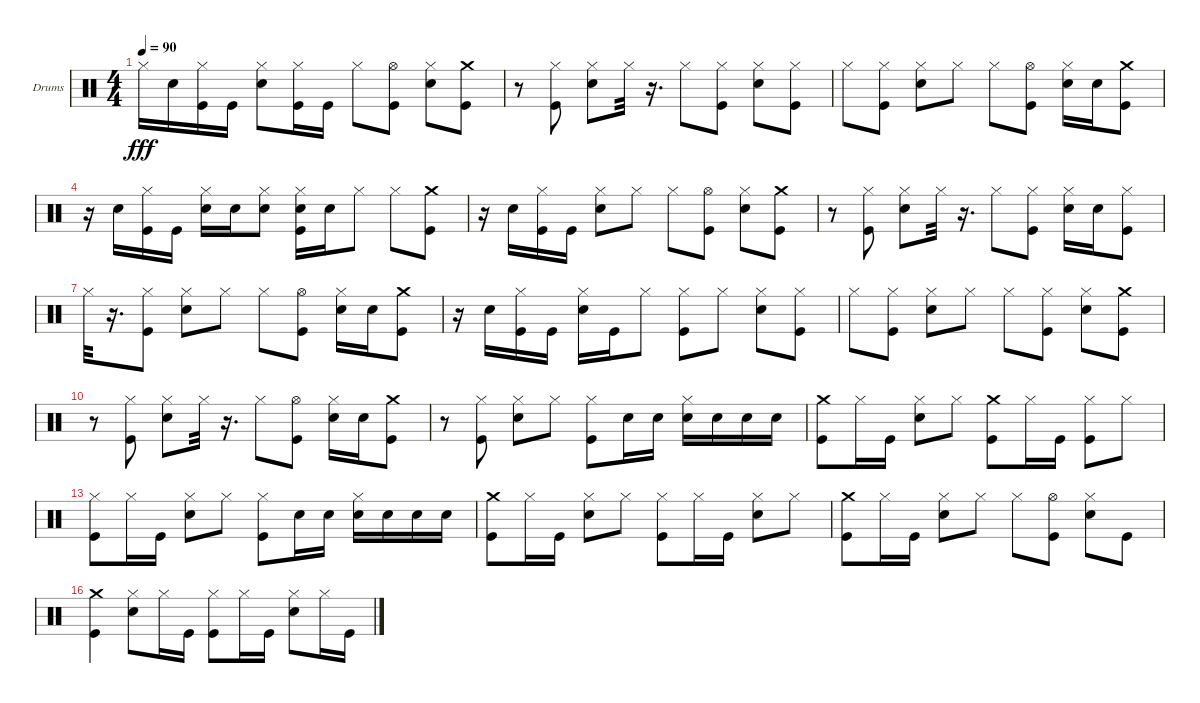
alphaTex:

\bracketExtendMode nobrackets
\firstSystemTrackNameOrientation horizontal
\otherSystemsTrackNameOrientation horizontal
\defaultBarNumberDisplay FirstOfSystem
\track ("Drums" "Drums") {instrument percussion}
\staff {score}
\articulation defaults
\ts (4 4)
\tempo 90
\clef neutral
\ks c "Hi-Hat (closed)".16{dy fff} "Snare (hit) 2".16
("Hi-Hat (closed)" "Kick (hit)").16 "Kick (hit)".16 ("Snare (hit) 2" "Hi-Hat (closed)").8 ("Kick (hit)" "Hi-Hat (closed)").16 "Kick (hit)".16 "Hi-Hat (closed)".8 ("Kick (hit)" "Hi-Hat (open)").8 ("Snare (hit) 2" "Hi-Hat (closed)").8 ("Crash medium (hit)" "Kick (hit)").8 |
r.8 ("Hi-Hat (closed)" "Kick (hit)").8 ("Snare (hit) 2" "Hi-Hat (closed)").8 "Hi-Hat (closed)".32 r.16{d} "Hi-Hat (closed)".8 ("Kick (hit)" "Hi-Hat (closed)").8 ("Snare (hit) 2" "Hi-Hat (closed)").8 ("Hi-Hat (closed)" "Kick (hit)").8 |
"Hi-Hat (closed)".8 ("Hi-Hat (closed)" "Kick (hit)").8 ("Hi-Hat (closed)" "Snare (hit) 2").8 "Hi-Hat (closed)".8 "Hi-Hat (closed)".8 ("Kick (hit)" "Hi-Hat (open)").8 ("Snare (hit) 2" "Hi-Hat (closed)").16 "Snare (hit) 2".16 ("Kick (hit)" "Crash medium (hit)").8 |
r.16 "Snare (hit) 2".16 ("Kick (hit)" "Hi-Hat (closed)").16 "Kick (hit)".16 ("Hi-Hat (closed)" "Snare (hit) 2").16 "Snare (hit) 2".16 ("Hi-Hat (closed)" "Snare (hit) 2").8 ("Snare (hit) 2" "Kick (hit)" "Hi-Hat (closed)").16 "Snare (hit) 2".16 "Hi-Hat (closed)".8 "Hi-Hat (closed)".8 ("Crash medium (hit)" "Kick (hit)").8 |
r.16 "Snare (hit) 2".16 ("Hi-Hat (closed)" "Kick (hit)").16 "Kick (hit)".16 ("Hi-Hat (closed)" "Snare (hit) 2").8 "Hi-Hat (closed)".8 "Hi-Hat (closed)".8 ("Kick (hit)" "Hi-Hat (open)").8 ("Snare (hit) 2" "Hi-Hat (closed)").8 ("Kick (hit)" "Crash medium (hit)").8 |
r.8 ("Hi-Hat (closed)" "Kick (hit)").8 ("Snare (hit) 2" "Hi-Hat (closed)").8 "Hi-Hat (closed)".32 r.16{d} "Hi-Hat (closed)".8 ("Kick (hit)" "Hi-Hat (closed)").8 ("Hi-Hat (closed)" "Snare (hit) 2").16 "Snare (hit) 2".16 ("Kick (hit)" "Hi-Hat (closed)").8 |
"Hi-Hat (closed)".32 r.16{d} ("Hi-Hat (closed)" "Kick (hit)").8 ("Hi-Hat (closed)" "Snare (hit) 2").8 "Hi-Hat (closed)".8 "Hi-Hat (closed)".8 ("Kick (hit)" "Hi-Hat (open)").8 ("Snare (hit) 2" "Hi-Hat (closed)").16 "Snare (hit) 2".16 ("Crash medium (hit)" "Kick (hit)").8 |
r.16 "Snare (hit) 2".16 ("Hi-Hat (closed)" "Kick (hit)").16 "Kick (hit)".16 ("Hi-Hat (closed)" "Snare (hit) 2").16 "Kick (hit)".16 "Hi-Hat (closed)".8 ("Kick (hit)" "Hi-Hat (closed)").8 "Hi-Hat (closed)".8 ("Hi-Hat (closed)" "Snare (hit) 2").8 ("Kick (hit)" "Hi-Hat (closed)").8 |
"Hi-Hat (closed)".8 ("Kick (hit)" "Hi-Hat (closed)").8 ("Snare (hit) 2" "Hi-Hat (closed)").8 "Hi-Hat (closed)".8 "Hi-Hat (closed)".8 ("Kick (hit)" "Hi-Hat (closed)").8 ("Snare (hit) 2" "Hi-Hat (closed)").8 ("Kick (hit)" "Crash medium (hit)").8 |
r.8 ("Hi-Hat (closed)" "Kick (hit)").8 ("Snare (hit) 2" "Hi-Hat (closed)").8 "Hi-Hat (closed)".32 r.16{d} "Hi-Hat (closed)".8 ("Kick (hit)" "Hi-Hat (open)").8 ("Snare (hit) 2" "Hi-Hat (closed)").16 "Snare (hit) 2".16 ("Kick (hit)" "Crash medium (hit)").8 |
r.8 ("Hi-Hat (closed)" "Kick (hit)").8 ("Hi-Hat (closed)" "Snare (hit) 2").8 "Hi-Hat (closed)".8 ("Hi-Hat (closed)" "Kick (hit)").8 "Snare (hit) 2".16 "Snare (hit) 2".16 ("Snare (hit) 2" "Hi-Hat (closed)").16 "Snare (hit) 2".16 "Snare (hit) 2".16 "Snare (hit) 2".16 |
("Crash medium (hit)" "Kick (hit)").8 "Hi-Hat (closed)".16 "Kick (hit)".16 ("Snare (hit) 2" "Hi-Hat (closed)").8 "Hi-Hat (closed)".8 ("Kick (hit)" "Crash medium (hit)").8 "Hi-Hat (closed)".16 "Kick (hit)".16 ("Kick (hit)" "Hi-Hat (closed)").8 "Hi-Hat (closed)".8 |
("Kick (hit)" "Hi-Hat (closed)").8 "Hi-Hat (closed)".16 "Kick (hit)".16 ("Snare (hit) 2" "Hi-Hat (closed)").8 "Hi-Hat (closed)".8 ("Kick (hit)" "Hi-Hat (closed)").8 "Snare (hit) 2".16 "Snare (hit) 2".16 ("Hi-Hat (closed)" "Snare (hit) 2").16 "Snare (hit) 2".16 "Snare (hit) 2".16 "Snare (hit) 2".16 |
("Kick (hit)" "Crash medium (hit)").8 "Hi-Hat (closed)".16 "Kick (hit)".16 ("Snare (hit) 2" "Hi-Hat (closed)").8 "Hi-Hat (closed)".8 ("Kick (hit)" "Hi-Hat (closed)").8 "Hi-Hat (closed)".16 "Kick (hit)".16 ("Snare (hit) 2" "Hi-Hat (closed)").8 "Hi-Hat (closed)".8 |
("Crash medium (hit)" "Kick (hit)").8 "Hi-Hat (closed)".16 "Kick (hit)".16 ("Snare (hit) 2" "Hi-Hat (closed)").8 "Hi-Hat (closed)".8 "Hi-Hat (closed)".8 ("Hi-Hat (open)" "Kick (hit)").8 ("Hi-Hat (closed)" "Snare (hit) 2").8 "Kick (hit)".8 |
("Crash medium (hit)" "Kick (hit)").4 ("Snare (hit) 2" "Hi-Hat (closed)").8 "Hi-Hat (closed)".16 "Kick (hit)".16 ("Hi-Hat (closed)" "Kick (hit)").8 "Hi-Hat (closed)".16 "Kick (hit)".16 ("Hi-Hat (closed)" "Snare (hit) 2").8 "Hi-Hat (closed)".16 "Kick (hit)".16
